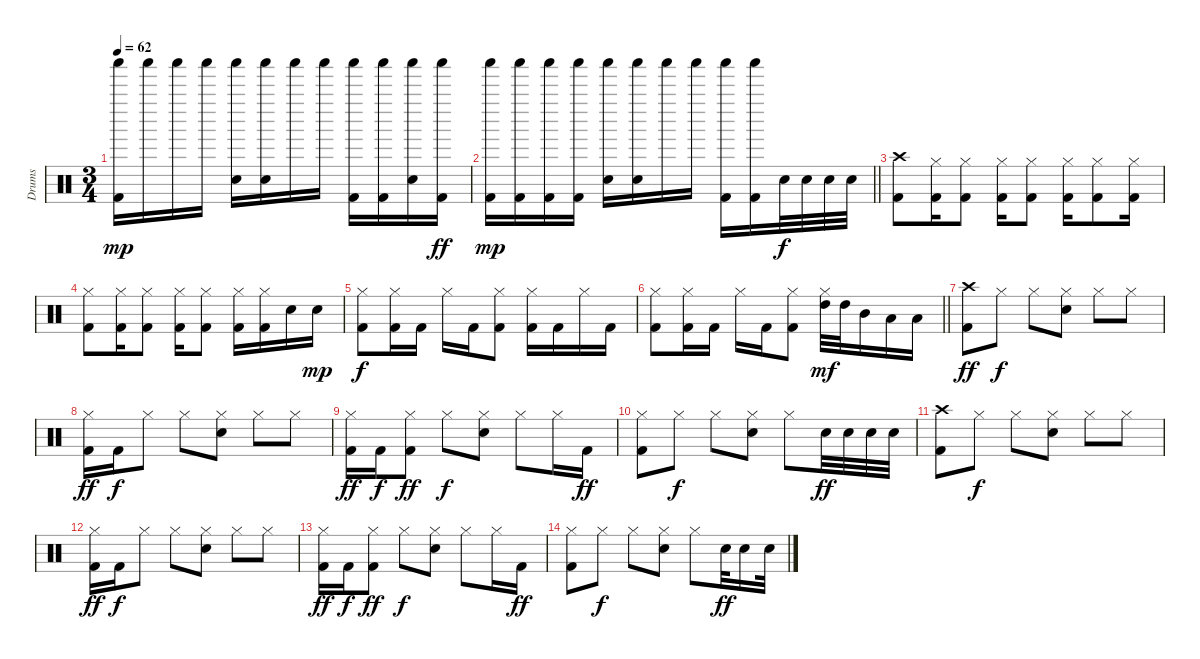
\track ("Drums" "Drums") {instrument percussion}
\staff {score}
\articulation defaults
\ts (3 4)
\tempo 62
\clef neutral
\ks c
("Shaker (hit)" "Kick (hit) 2").16{dy mp} "Shaker (hit)".16 "Shaker (hit)".16 "Shaker (hit)".16 ("Shaker (hit)" "Electric Snare (hit)").16 ("Shaker (hit)" "Electric Snare (hit)").16 "Shaker (hit)".16 "Shaker (hit)".16 ("Shaker (hit)" "Kick (hit) 2").16 ("Shaker (hit)" "Kick (hit) 2").16 ("Shaker (hit)" "Electric Snare (hit)").16 ("Shaker (hit)" "Kick (hit) 2").16{dy ff} |
\barLineRight lightlight
("Shaker (hit)" "Kick (hit) 2").16{dy mp} ("Shaker (hit)" "Kick (hit) 2").16 ("Shaker (hit)" "Kick (hit) 2").16 ("Shaker (hit)" "Kick (hit) 2").16 ("Shaker (hit)" "Electric Snare (hit)").16 ("Shaker (hit)" "Electric Snare (hit)").16 "Shaker (hit)".16 "Shaker (hit)".16 ("Shaker (hit)" "Kick (hit) 2").16 ("Shaker (hit)" "Kick (hit) 2").16 "Electric Snare (hit)".32{dy f} "Electric Snare (hit)".32 "Electric Snare (hit)".32 "Electric Snare (hit)".32 |
("Crash high (hit)" "Kick (hit) 2").8 ("Hi-Hat (closed)" "Kick (hit) 2").16 ("Hi-Hat (closed)" "Kick (hit) 2").8 ("Hi-Hat (closed)" "Kick (hit) 2").16 ("Hi-Hat (closed)" "Kick (hit) 2").8 ("Hi-Hat (closed)" "Kick (hit) 2").16 ("Hi-Hat (closed)" "Kick (hit) 2").8 ("Hi-Hat (closed)" "Kick (hit) 2").16 |
("Hi-Hat (closed)" "Kick (hit) 2").8 ("Hi-Hat (closed)" "Kick (hit) 2").16 ("Hi-Hat (closed)" "Kick (hit) 2").8 ("Hi-Hat (closed)" "Kick (hit) 2").16 ("Hi-Hat (closed)" "Kick (hit) 2").8 ("Hi-Hat (closed)" "Kick (hit) 2").16 ("Hi-Hat (closed)" "Kick (hit) 2").16 "Electric Snare (hit)".16 "Electric Snare (hit)".16{dy mp} |
("Hi-Hat (closed)" "Kick (hit) 2").8{dy f} ("Hi-Hat (closed)" "Kick (hit) 2").16 "Kick (hit) 2".16 "Hi-Hat (closed)".16 "Kick (hit) 2".16 ("Hi-Hat (closed)" "Kick (hit) 2").8 ("Hi-Hat (closed)" "Kick (hit) 2").16 "Kick (hit) 2".16 "Hi-Hat (closed)".16 "Kick (hit) 2".16 |
\barLineRight lightlight
("Hi-Hat (closed)" "Kick (hit) 2").8 ("Hi-Hat (closed)" "Kick (hit) 2").16 "Kick (hit) 2".16 "Hi-Hat (closed)".16 "Kick (hit) 2".16 ("Hi-Hat (closed)" "Kick (hit) 2").8 ("Hi-Hat (closed)" "High Tom (hit)").32{dy mf} "High Tom (hit)".32 "Mid Tom (hit)".16 "Low Tom (hit)".16 "Low Tom (hit)".16 |
("Crash high (hit)" "Kick (hit) 2").8{dy ff} "Hi-Hat (closed)".8{dy f} "Hi-Hat (closed)".8 ("Hi-Hat (closed)" "Electric Snare (hit)").8 "Hi-Hat (closed)".8 "Hi-Hat (closed)".8 |
("Hi-Hat (closed)" "Kick (hit) 2").16{dy ff} "Kick (hit) 2".16{dy f} "Hi-Hat (closed)".8 "Hi-Hat (closed)".8 ("Hi-Hat (closed)" "Electric Snare (hit)").8 "Hi-Hat (closed)".8 "Hi-Hat (closed)".8 |
("Hi-Hat (closed)" "Kick (hit) 2").16{dy ff} "Kick (hit) 2".16{dy f} ("Hi-Hat (closed)" "Kick (hit) 2").8{dy ff} "Hi-Hat (closed)".8{dy f} ("Hi-Hat (closed)" "Electric Snare (hit)").8 "Hi-Hat (closed)".8 "Hi-Hat (closed)".16 "Kick (hit) 2".16{dy ff} |
("Hi-Hat (closed)" "Kick (hit) 2").8 "Hi-Hat (closed)".8{dy f} "Hi-Hat (closed)".8 ("Hi-Hat (closed)" "Electric Snare (hit)").8 "Hi-Hat (closed)".8 "Snare (hit) 2".32{dy ff} "Electric Snare (hit)".32 "Electric Snare (hit)".32 "Electric Snare (hit)".32 |
("Crash high (hit)" "Kick (hit) 2").8 "Hi-Hat (closed)".8{dy f} "Hi-Hat (closed)".8 ("Hi-Hat (closed)" "Electric Snare (hit)").8 "Hi-Hat (closed)".8 "Hi-Hat (closed)".8 |
("Hi-Hat (closed)" "Kick (hit) 2").16{dy ff} "Kick (hit) 2".16{dy f} "Hi-Hat (closed)".8 "Hi-Hat (closed)".8 ("Hi-Hat (closed)" "Electric Snare (hit)").8 "Hi-Hat (closed)".8 "Hi-Hat (closed)".8 |
("Hi-Hat (closed)" "Kick (hit) 2").16{dy ff} "Kick (hit) 2".16{dy f} ("Hi-Hat (closed)" "Kick (hit) 2").8{dy ff} "Hi-Hat (closed)".8{dy f} ("Hi-Hat (closed)" "Electric Snare (hit)").8 "Hi-Hat (closed)".8 "Hi-Hat (closed)".16 "Kick (hit) 2".16{dy ff} |
("Hi-Hat (closed)" "Kick (hit) 2").8 "Hi-Hat (closed)".8{dy f} "Hi-Hat (closed)".8 ("Hi-Hat (closed)" "Electric Snare (hit)").8 "Hi-Hat (closed)".8 "Electric Snare (hit)".32{dy ff} "Electric Snare (hit)".16 "Electric Snare (hit)".32
